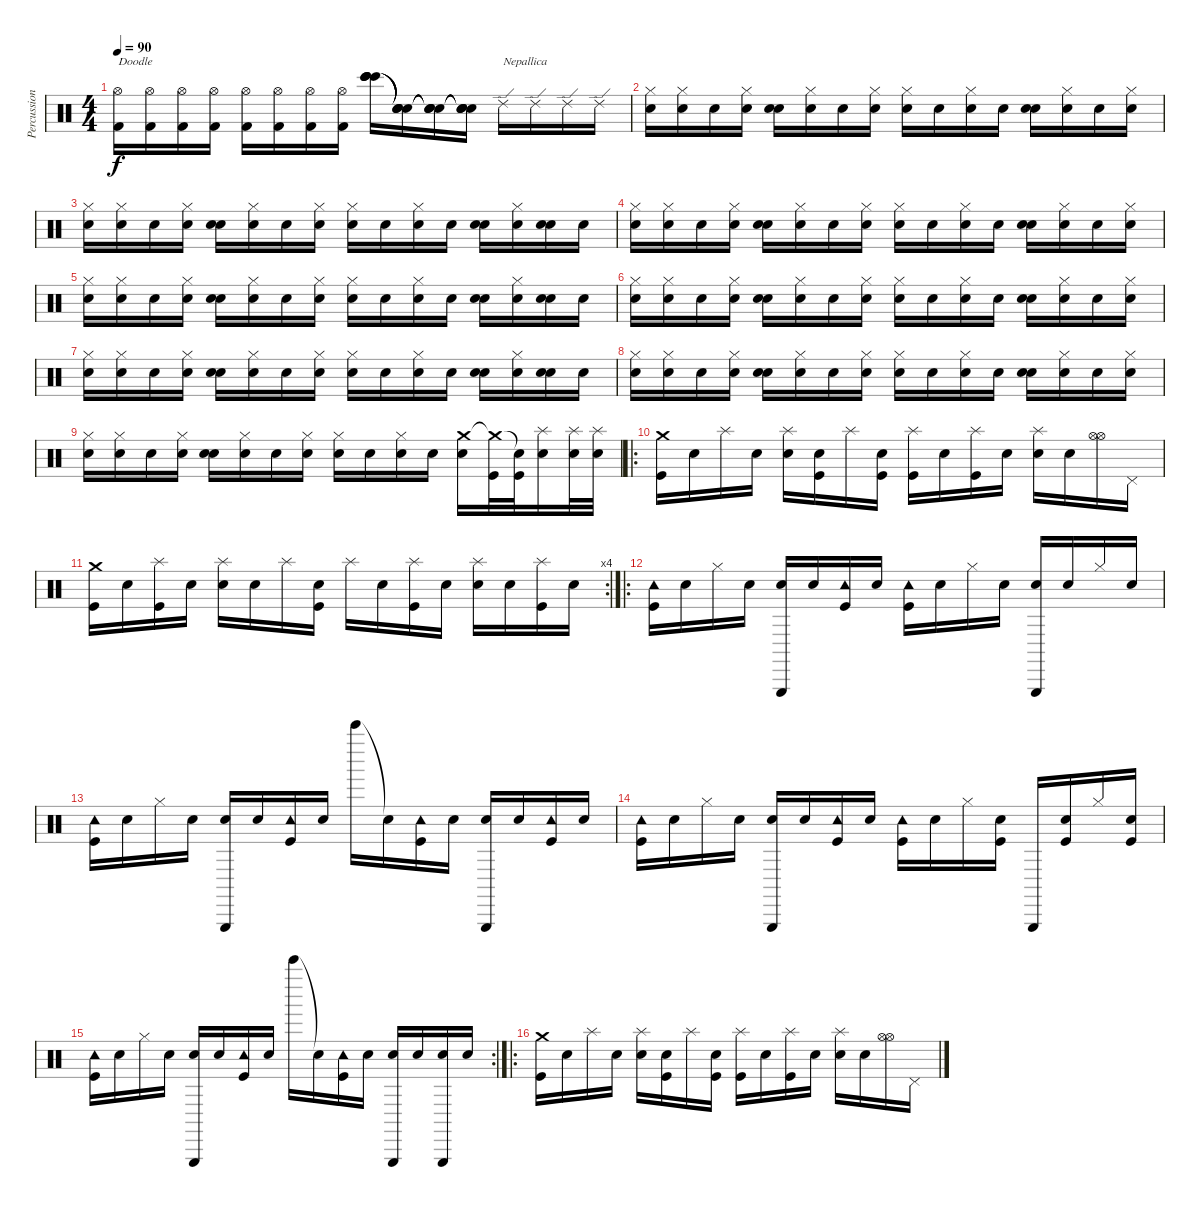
\track ("Percussions" "Percussion") {instrument percussion}
\staff {score}
\articulation defaults
\ts (4 4)
\tempo 90
\clef neutral
\ks c
("Kick (hit) 2" "Hi-Hat (open)").16{txt "Doodle" dy f} ("Kick (hit) 2" "Hi-Hat (open)").16 ("Kick (hit) 2" "Hi-Hat (open)").16 ("Kick (hit) 2" "Hi-Hat (open)").16 ("Kick (hit) 2" "Hi-Hat (open)").16 ("Kick (hit) 2" "Hi-Hat (open)").16 ("Kick (hit) 2" "Hi-Hat (open)").16 ("Kick (hit) 2" "Hi-Hat (open)").16 ("Bongo High (hit)" "Bongo High (hit)" "Bongo High (hit)" "Bongo High (hit)").16 ("Snare (hit)"{t} "Snare (hit)"{t} "Snare (hit)"{t} "Snare (hit)"{t}).16 ("Snare (hit)"{t} "Snare (hit)"{t} "Snare (hit)"{t} "Snare (hit)"{t}).16 ("Snare (hit)"{t} "Snare (hit)"{t} "Snare (hit)"{t} "Snare (hit)"{t}).16 "Ride (edge) 2".16{txt "Nepallica"} "Ride (edge) 2".16 "Ride (edge) 2".16 "Ride (edge) 2".16 |
("Snare (hit)" "Hi-Hat (closed)").16 ("Snare (hit)" "Hi-Hat (closed)").16 "Snare (hit)".16 ("Snare (hit)" "Hi-Hat (closed)").16 ("Snare (hit)" "Snare (hit)").16 ("Snare (hit)" "Hi-Hat (closed)").16 "Snare (hit)".16 ("Snare (hit)" "Hi-Hat (closed)").16 ("Snare (hit)" "Hi-Hat (closed)").16 "Snare (hit)".16 ("Snare (hit)" "Hi-Hat (closed)").16 "Snare (hit)".16 ("Snare (hit)" "Snare (hit)").16 ("Snare (hit)" "Hi-Hat (closed)").16 "Snare (hit)".16 ("Snare (hit)" "Hi-Hat (closed)").16 |
("Snare (hit)" "Hi-Hat (closed)").16 ("Snare (hit)" "Hi-Hat (closed)").16 "Snare (hit)".16 ("Snare (hit)" "Hi-Hat (closed)").16 ("Snare (hit)" "Snare (hit)").16 ("Snare (hit)" "Hi-Hat (closed)").16 "Snare (hit)".16 ("Snare (hit)" "Hi-Hat (closed)").16 ("Snare (hit)" "Hi-Hat (closed)").16 "Snare (hit)".16 ("Snare (hit)" "Hi-Hat (closed)").16 "Snare (hit)".16 ("Snare (hit)" "Snare (hit)").16 ("Snare (hit)" "Hi-Hat (closed)").16 ("Snare (hit)" "Snare (hit)").16 "Snare (hit)".16 |
("Snare (hit)" "Hi-Hat (closed)").16 ("Snare (hit)" "Hi-Hat (closed)").16 "Snare (hit)".16 ("Snare (hit)" "Hi-Hat (closed)").16 ("Snare (hit)" "Snare (hit)").16 ("Snare (hit)" "Hi-Hat (closed)").16 "Snare (hit)".16 ("Snare (hit)" "Hi-Hat (closed)").16 ("Snare (hit)" "Hi-Hat (closed)").16 "Snare (hit)".16 ("Snare (hit)" "Hi-Hat (closed)").16 "Snare (hit)".16 ("Snare (hit)" "Snare (hit)").16 ("Snare (hit)" "Hi-Hat (closed)").16 "Snare (hit)".16 ("Snare (hit)" "Hi-Hat (closed)").16 |
("Snare (hit)" "Hi-Hat (closed)").16 ("Snare (hit)" "Hi-Hat (closed)").16 "Snare (hit)".16 ("Snare (hit)" "Hi-Hat (closed)").16 ("Snare (hit)" "Snare (hit)").16 ("Snare (hit)" "Hi-Hat (closed)").16 "Snare (hit)".16 ("Snare (hit)" "Hi-Hat (closed)").16 ("Snare (hit)" "Hi-Hat (closed)").16 "Snare (hit)".16 ("Snare (hit)" "Hi-Hat (closed)").16 "Snare (hit)".16 ("Snare (hit)" "Snare (hit)").16 ("Snare (hit)" "Hi-Hat (closed)").16 ("Snare (hit)" "Snare (hit)").16 "Snare (hit)".16 |
("Snare (hit)" "Hi-Hat (closed)").16 ("Snare (hit)" "Hi-Hat (closed)").16 "Snare (hit)".16 ("Snare (hit)" "Hi-Hat (closed)").16 ("Snare (hit)" "Snare (hit)").16 ("Snare (hit)" "Hi-Hat (closed)").16 "Snare (hit)".16 ("Snare (hit)" "Hi-Hat (closed)").16 ("Snare (hit)" "Hi-Hat (closed)").16 "Snare (hit)".16 ("Snare (hit)" "Hi-Hat (closed)").16 "Snare (hit)".16 ("Snare (hit)" "Snare (hit)").16 ("Snare (hit)" "Hi-Hat (closed)").16 "Snare (hit)".16 ("Snare (hit)" "Hi-Hat (closed)").16 |
("Snare (hit)" "Hi-Hat (closed)").16 ("Snare (hit)" "Hi-Hat (closed)").16 "Snare (hit)".16 ("Snare (hit)" "Hi-Hat (closed)").16 ("Snare (hit)" "Snare (hit)").16 ("Snare (hit)" "Hi-Hat (closed)").16 "Snare (hit)".16 ("Snare (hit)" "Hi-Hat (closed)").16 ("Snare (hit)" "Hi-Hat (closed)").16 "Snare (hit)".16 ("Snare (hit)" "Hi-Hat (closed)").16 "Snare (hit)".16 ("Snare (hit)" "Snare (hit)").16 ("Snare (hit)" "Hi-Hat (closed)").16 ("Snare (hit)" "Snare (hit)").16 "Snare (hit)".16 |
("Snare (hit)" "Hi-Hat (closed)").16 ("Snare (hit)" "Hi-Hat (closed)").16 "Snare (hit)".16 ("Snare (hit)" "Hi-Hat (closed)").16 ("Snare (hit)" "Snare (hit)").16 ("Snare (hit)" "Hi-Hat (closed)").16 "Snare (hit)".16 ("Snare (hit)" "Hi-Hat (closed)").16 ("Snare (hit)" "Hi-Hat (closed)").16 "Snare (hit)".16 ("Snare (hit)" "Hi-Hat (closed)").16 "Snare (hit)".16 ("Snare (hit)" "Snare (hit)").16 ("Snare (hit)" "Hi-Hat (closed)").16 "Snare (hit)".16 ("Snare (hit)" "Hi-Hat (closed)").16 |
("Snare (hit)" "Hi-Hat (closed)").16 ("Snare (hit)" "Hi-Hat (closed)").16 "Snare (hit)".16 ("Snare (hit)" "Hi-Hat (closed)").16 ("Snare (hit)" "Snare (hit)").16 ("Snare (hit)" "Hi-Hat (closed)").16 "Snare (hit)".16 ("Snare (hit)" "Hi-Hat (closed)").16 ("Snare (hit)" "Hi-Hat (closed)").16 "Snare (hit)".16 ("Snare (hit)" "Hi-Hat (closed)").16 "Snare (hit)".16 ("Crash medium (hit)" "Snare (hit) 2").16 ("Crash medium (hit)"{t} "Kick (hit)").32 ("Snare (hit)"{t} "Kick (hit)").32 ("Splash (hit)" "Snare (hit) 2").16 ("Splash (hit)" "Snare (hit) 2").32 ("Splash (hit)" "Snare (hit) 2").32 |
\ro
("Crash medium (hit)" "Kick (hit)").16 "Snare (hit)".16 "Splash (hit)".16 "Snare (hit)".16 ("Splash (hit)" "Snare (hit) 2").16 ("Snare (hit)" "Kick (hit)").16 "Splash (hit)".16 ("Snare (hit)" "Kick (hit)").16 ("Splash (hit)" "Kick (hit)").16 "Snare (hit)".16 ("Splash (hit)" "Kick (hit)").16 "Snare (hit)".16 ("Splash (hit)" "Snare (hit) 2").16 "Snare (hit)".16 ("Hi-Hat (open)" "Hi-Hat (open)").16 "Pedal Hi-Hat (hit)".16 |
\rc 4
("Crash medium (hit)" "Kick (hit)").16 "Snare (hit)".16 ("Splash (hit)" "Kick (hit)").16 "Snare (hit)".16 ("Splash (hit)" "Snare (hit) 2").16 "Snare (hit)".16 "Splash (hit)".16 ("Snare (hit)" "Kick (hit)").16 "Splash (hit)".16 "Snare (hit)".16 ("Splash (hit)" "Kick (hit)").16 "Snare (hit)".16 ("Splash (hit)" "Snare (hit) 2").16 "Snare (hit)".16 ("Splash (hit)" "Kick (hit)").16 "Snare (hit)".16 |
\ro
("Tambourine (hit)" "Kick (hit)").16 "Snare (hit)".16 "Hi-Hat (closed)".16 "Snare (hit)".16 ("Triangle (hit)" "Metronome (bell)").16 "Snare (hit)".16 ("Tambourine (hit)" "Kick (hit)").16 "Snare (hit)".16 ("Tambourine (hit)" "Kick (hit)").16 "Snare (hit)".16 "Hi-Hat (closed)".16 "Snare (hit)".16 ("Triangle (hit)" "Metronome (bell)").16 "Snare (hit)".16 "Hi-Hat (closed)".16 "Snare (hit)".16 |
("Tambourine (hit)" "Kick (hit)").16 "Snare (hit)".16 "Hi-Hat (closed)".16 "Snare (hit)".16 ("Triangle (hit)" "Metronome (bell)").16 "Snare (hit)".16 ("Tambourine (hit)" "Kick (hit)").16 "Snare (hit)".16 "Bell Tree (hit)".16 "Snare (hit)"{t}.16 ("Tambourine (hit)" "Kick (hit)").16 "Snare (hit)".16 ("Triangle (hit)" "Metronome (bell)").16 "Snare (hit)".16 ("Tambourine (hit)" "Kick (hit)").16 "Snare (hit)".16 |
("Tambourine (hit)" "Kick (hit)").16 "Snare (hit)".16 "Hi-Hat (closed)".16 "Snare (hit)".16 ("Triangle (hit)" "Metronome (bell)").16 "Snare (hit)".16 ("Tambourine (hit)" "Kick (hit)").16 "Snare (hit)".16 ("Tambourine (hit)" "Kick (hit)").16 "Snare (hit)".16 "Hi-Hat (closed)".16 ("Snare (hit)" "Kick (hit)").16 "Triangle (hit)".16 ("Snare (hit)" "Kick (hit)").16 "Hi-Hat (closed)".16 ("Snare (hit)" "Kick (hit)").16 |
\rc 2
("Tambourine (hit)" "Kick (hit)").16 "Snare (hit)".16 "Hi-Hat (closed)".16 "Snare (hit)".16 ("Triangle (hit)" "Metronome (bell)").16 "Snare (hit)".16 ("Tambourine (hit)" "Kick (hit)").16 "Snare (hit)".16 "Bell Tree (hit)".16 "Snare (hit)"{t}.16 ("Tambourine (hit)" "Kick (hit)").16 "Snare (hit)".16 ("Triangle (hit)" "Metronome (bell)").16 "Snare (hit)".16 ("Triangle (hit)" "Metronome (bell)").16 "Snare (hit)".16 |
\ro
("Crash medium (hit)" "Kick (hit)").16 "Snare (hit)".16 "Splash (hit)".16 "Snare (hit)".16 ("Splash (hit)" "Snare (hit) 2").16 ("Snare (hit)" "Kick (hit)").16 "Splash (hit)".16 ("Snare (hit)" "Kick (hit)").16 ("Splash (hit)" "Kick (hit)").16 "Snare (hit)".16 ("Splash (hit)" "Kick (hit)").16 "Snare (hit)".16 ("Splash (hit)" "Snare (hit) 2").16 "Snare (hit)".16 ("Hi-Hat (open)" "Hi-Hat (open)").16 "Pedal Hi-Hat (hit)".16
